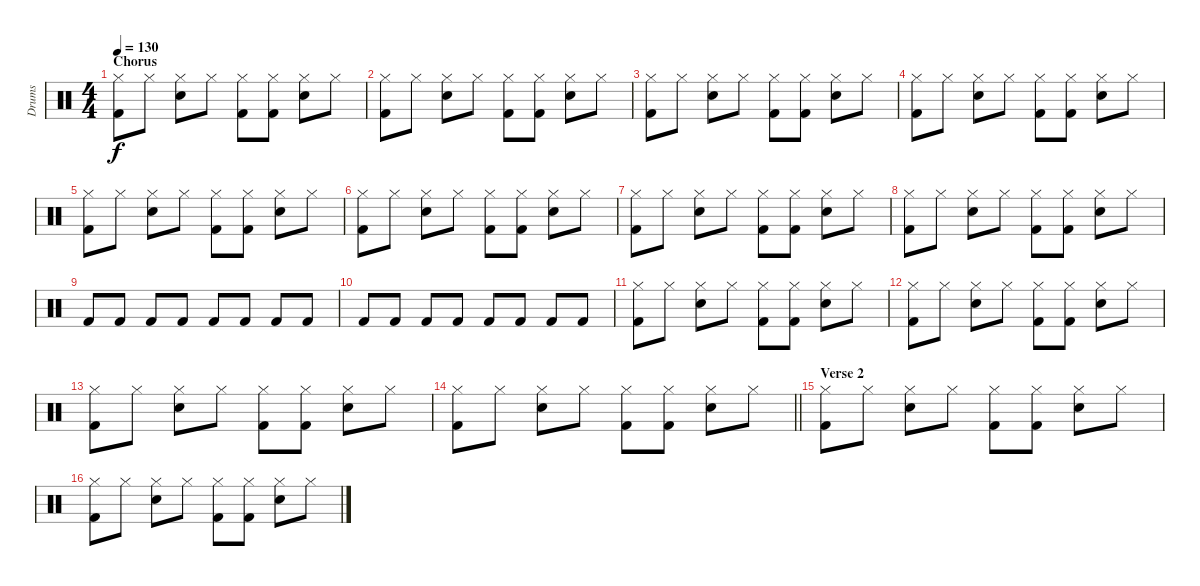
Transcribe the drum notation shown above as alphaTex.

\track ("Drums" "Drums") {instrument percussion}
\staff {score}
\articulation defaults
\ts (4 4)
\section ("" "Chorus")
\tempo 130
\clef neutral
\ks c
("Hi-Hat (closed)" "Kick (hit) 2").8{dy f} "Hi-Hat (closed)".8 ("Hi-Hat (closed)" "Snare (hit) 2").8 "Hi-Hat (closed)".8 ("Hi-Hat (closed)" "Kick (hit) 2").8 ("Hi-Hat (closed)" "Kick (hit) 2").8 ("Hi-Hat (closed)" "Snare (hit) 2").8 "Hi-Hat (closed)".8 |
("Hi-Hat (closed)" "Kick (hit) 2").8 "Hi-Hat (closed)".8 ("Hi-Hat (closed)" "Snare (hit) 2").8 "Hi-Hat (closed)".8 ("Hi-Hat (closed)" "Kick (hit) 2").8 ("Hi-Hat (closed)" "Kick (hit) 2").8 ("Hi-Hat (closed)" "Snare (hit) 2").8 "Hi-Hat (closed)".8 |
("Hi-Hat (closed)" "Kick (hit) 2").8 "Hi-Hat (closed)".8 ("Hi-Hat (closed)" "Snare (hit) 2").8 "Hi-Hat (closed)".8 ("Hi-Hat (closed)" "Kick (hit) 2").8 ("Hi-Hat (closed)" "Kick (hit) 2").8 ("Hi-Hat (closed)" "Snare (hit) 2").8 "Hi-Hat (closed)".8 |
("Hi-Hat (closed)" "Kick (hit) 2").8 "Hi-Hat (closed)".8 ("Hi-Hat (closed)" "Snare (hit) 2").8 "Hi-Hat (closed)".8 ("Hi-Hat (closed)" "Kick (hit) 2").8 ("Hi-Hat (closed)" "Kick (hit) 2").8 ("Hi-Hat (closed)" "Snare (hit) 2").8 "Hi-Hat (closed)".8 |
("Hi-Hat (closed)" "Kick (hit) 2").8 "Hi-Hat (closed)".8 ("Hi-Hat (closed)" "Snare (hit) 2").8 "Hi-Hat (closed)".8 ("Hi-Hat (closed)" "Kick (hit) 2").8 ("Hi-Hat (closed)" "Kick (hit) 2").8 ("Hi-Hat (closed)" "Snare (hit) 2").8 "Hi-Hat (closed)".8 |
("Hi-Hat (closed)" "Kick (hit) 2").8 "Hi-Hat (closed)".8 ("Hi-Hat (closed)" "Snare (hit) 2").8 "Hi-Hat (closed)".8 ("Hi-Hat (closed)" "Kick (hit) 2").8 ("Hi-Hat (closed)" "Kick (hit) 2").8 ("Hi-Hat (closed)" "Snare (hit) 2").8 "Hi-Hat (closed)".8 |
("Hi-Hat (closed)" "Kick (hit) 2").8 "Hi-Hat (closed)".8 ("Hi-Hat (closed)" "Snare (hit) 2").8 "Hi-Hat (closed)".8 ("Hi-Hat (closed)" "Kick (hit) 2").8 ("Hi-Hat (closed)" "Kick (hit) 2").8 ("Hi-Hat (closed)" "Snare (hit) 2").8 "Hi-Hat (closed)".8 |
("Hi-Hat (closed)" "Kick (hit) 2").8 "Hi-Hat (closed)".8 ("Hi-Hat (closed)" "Snare (hit) 2").8 "Hi-Hat (closed)".8 ("Hi-Hat (closed)" "Kick (hit) 2").8 ("Hi-Hat (closed)" "Kick (hit) 2").8 ("Hi-Hat (closed)" "Snare (hit) 2").8 "Hi-Hat (closed)".8 |
"Kick (hit) 2".8 "Kick (hit) 2".8 "Kick (hit) 2".8 "Kick (hit) 2".8 "Kick (hit) 2".8 "Kick (hit) 2".8 "Kick (hit) 2".8 "Kick (hit) 2".8 |
"Kick (hit) 2".8 "Kick (hit) 2".8 "Kick (hit) 2".8 "Kick (hit) 2".8 "Kick (hit) 2".8 "Kick (hit) 2".8 "Kick (hit) 2".8 "Kick (hit) 2".8 |
("Hi-Hat (closed)" "Kick (hit) 2").8 "Hi-Hat (closed)".8 ("Hi-Hat (closed)" "Snare (hit) 2").8 "Hi-Hat (closed)".8 ("Hi-Hat (closed)" "Kick (hit) 2").8 ("Hi-Hat (closed)" "Kick (hit) 2").8 ("Hi-Hat (closed)" "Snare (hit) 2").8 "Hi-Hat (closed)".8 |
("Hi-Hat (closed)" "Kick (hit) 2").8 "Hi-Hat (closed)".8 ("Hi-Hat (closed)" "Snare (hit) 2").8 "Hi-Hat (closed)".8 ("Hi-Hat (closed)" "Kick (hit) 2").8 ("Hi-Hat (closed)" "Kick (hit) 2").8 ("Hi-Hat (closed)" "Snare (hit) 2").8 "Hi-Hat (closed)".8 |
("Hi-Hat (closed)" "Kick (hit) 2").8 "Hi-Hat (closed)".8 ("Hi-Hat (closed)" "Snare (hit) 2").8 "Hi-Hat (closed)".8 ("Hi-Hat (closed)" "Kick (hit) 2").8 ("Hi-Hat (closed)" "Kick (hit) 2").8 ("Hi-Hat (closed)" "Snare (hit) 2").8 "Hi-Hat (closed)".8 |
\barLineRight lightlight
("Hi-Hat (closed)" "Kick (hit) 2").8 "Hi-Hat (closed)".8 ("Hi-Hat (closed)" "Snare (hit) 2").8 "Hi-Hat (closed)".8 ("Hi-Hat (closed)" "Kick (hit) 2").8 ("Hi-Hat (closed)" "Kick (hit) 2").8 ("Hi-Hat (closed)" "Snare (hit) 2").8 "Hi-Hat (closed)".8 |
\section ("" "Verse 2")
("Hi-Hat (closed)" "Kick (hit) 2").8 "Hi-Hat (closed)".8 ("Hi-Hat (closed)" "Snare (hit) 2").8 "Hi-Hat (closed)".8 ("Hi-Hat (closed)" "Kick (hit) 2").8 ("Hi-Hat (closed)" "Kick (hit) 2").8 ("Hi-Hat (closed)" "Snare (hit) 2").8 "Hi-Hat (closed)".8 |
("Hi-Hat (closed)" "Kick (hit) 2").8 "Hi-Hat (closed)".8 ("Hi-Hat (closed)" "Snare (hit) 2").8 "Hi-Hat (closed)".8 ("Hi-Hat (closed)" "Kick (hit) 2").8 ("Hi-Hat (closed)" "Kick (hit) 2").8 ("Hi-Hat (closed)" "Snare (hit) 2").8 "Hi-Hat (closed)".8
